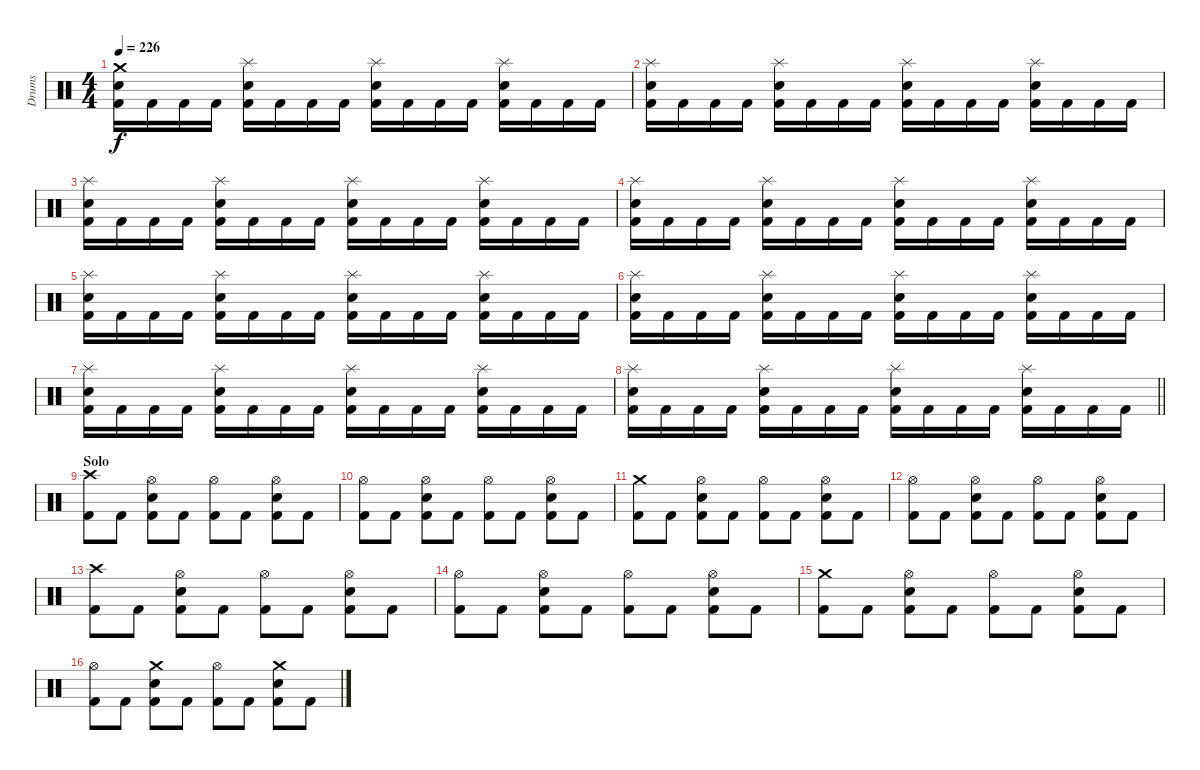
\track ("Drums" "Drums") {instrument percussion}
\staff {score}
\articulation defaults
\ts (4 4)
\tempo 226
\clef neutral
\ks c
("Crash medium (hit)" "Snare (hit) 2" "Kick (hit) 2").16{dy f} "Kick (hit) 2".16 "Kick (hit) 2".16 "Kick (hit) 2".16 ("Splash (hit)" "Snare (hit) 2" "Kick (hit) 2").16 "Kick (hit) 2".16 "Kick (hit) 2".16 "Kick (hit) 2".16 ("Splash (hit)" "Snare (hit) 2" "Kick (hit) 2").16 "Kick (hit) 2".16 "Kick (hit) 2".16 "Kick (hit) 2".16 ("Splash (hit)" "Snare (hit) 2" "Kick (hit) 2").16 "Kick (hit) 2".16 "Kick (hit) 2".16 "Kick (hit) 2".16 |
("Splash (hit)" "Snare (hit) 2" "Kick (hit) 2").16 "Kick (hit) 2".16 "Kick (hit) 2".16 "Kick (hit) 2".16 ("Splash (hit)" "Snare (hit) 2" "Kick (hit) 2").16 "Kick (hit) 2".16 "Kick (hit) 2".16 "Kick (hit) 2".16 ("Splash (hit)" "Snare (hit) 2" "Kick (hit) 2").16 "Kick (hit) 2".16 "Kick (hit) 2".16 "Kick (hit) 2".16 ("Splash (hit)" "Snare (hit) 2" "Kick (hit) 2").16 "Kick (hit) 2".16 "Kick (hit) 2".16 "Kick (hit) 2".16 |
("Splash (hit)" "Snare (hit) 2" "Kick (hit) 2").16 "Kick (hit) 2".16 "Kick (hit) 2".16 "Kick (hit) 2".16 ("Splash (hit)" "Snare (hit) 2" "Kick (hit) 2").16 "Kick (hit) 2".16 "Kick (hit) 2".16 "Kick (hit) 2".16 ("Splash (hit)" "Snare (hit) 2" "Kick (hit) 2").16 "Kick (hit) 2".16 "Kick (hit) 2".16 "Kick (hit) 2".16 ("Splash (hit)" "Snare (hit) 2" "Kick (hit) 2").16 "Kick (hit) 2".16 "Kick (hit) 2".16 "Kick (hit) 2".16 |
("Splash (hit)" "Snare (hit) 2" "Kick (hit) 2").16 "Kick (hit) 2".16 "Kick (hit) 2".16 "Kick (hit) 2".16 ("Splash (hit)" "Snare (hit) 2" "Kick (hit) 2").16 "Kick (hit) 2".16 "Kick (hit) 2".16 "Kick (hit) 2".16 ("Splash (hit)" "Snare (hit) 2" "Kick (hit) 2").16 "Kick (hit) 2".16 "Kick (hit) 2".16 "Kick (hit) 2".16 ("Splash (hit)" "Snare (hit) 2" "Kick (hit) 2").16 "Kick (hit) 2".16 "Kick (hit) 2".16 "Kick (hit) 2".16 |
("Splash (hit)" "Snare (hit) 2" "Kick (hit) 2").16 "Kick (hit) 2".16 "Kick (hit) 2".16 "Kick (hit) 2".16 ("Splash (hit)" "Snare (hit) 2" "Kick (hit) 2").16 "Kick (hit) 2".16 "Kick (hit) 2".16 "Kick (hit) 2".16 ("Splash (hit)" "Snare (hit) 2" "Kick (hit) 2").16 "Kick (hit) 2".16 "Kick (hit) 2".16 "Kick (hit) 2".16 ("Splash (hit)" "Snare (hit) 2" "Kick (hit) 2").16 "Kick (hit) 2".16 "Kick (hit) 2".16 "Kick (hit) 2".16 |
("Splash (hit)" "Snare (hit) 2" "Kick (hit) 2").16 "Kick (hit) 2".16 "Kick (hit) 2".16 "Kick (hit) 2".16 ("Splash (hit)" "Snare (hit) 2" "Kick (hit) 2").16 "Kick (hit) 2".16 "Kick (hit) 2".16 "Kick (hit) 2".16 ("Splash (hit)" "Snare (hit) 2" "Kick (hit) 2").16 "Kick (hit) 2".16 "Kick (hit) 2".16 "Kick (hit) 2".16 ("Splash (hit)" "Snare (hit) 2" "Kick (hit) 2").16 "Kick (hit) 2".16 "Kick (hit) 2".16 "Kick (hit) 2".16 |
("Splash (hit)" "Snare (hit) 2" "Kick (hit) 2").16 "Kick (hit) 2".16 "Kick (hit) 2".16 "Kick (hit) 2".16 ("Splash (hit)" "Snare (hit) 2" "Kick (hit) 2").16 "Kick (hit) 2".16 "Kick (hit) 2".16 "Kick (hit) 2".16 ("Splash (hit)" "Snare (hit) 2" "Kick (hit) 2").16 "Kick (hit) 2".16 "Kick (hit) 2".16 "Kick (hit) 2".16 ("Splash (hit)" "Snare (hit) 2" "Kick (hit) 2").16 "Kick (hit) 2".16 "Kick (hit) 2".16 "Kick (hit) 2".16 |
\barLineRight lightlight
("Splash (hit)" "Snare (hit) 2" "Kick (hit) 2").16 "Kick (hit) 2".16 "Kick (hit) 2".16 "Kick (hit) 2".16 ("Splash (hit)" "Snare (hit) 2" "Kick (hit) 2").16 "Kick (hit) 2".16 "Kick (hit) 2".16 "Kick (hit) 2".16 ("Splash (hit)" "Snare (hit) 2" "Kick (hit) 2").16 "Kick (hit) 2".16 "Kick (hit) 2".16 "Kick (hit) 2".16 ("Splash (hit)" "Snare (hit) 2" "Kick (hit) 2").16 "Kick (hit) 2".16 "Kick (hit) 2".16 "Kick (hit) 2".16 |
\section ("" "Solo")
("Crash high (hit)" "Kick (hit) 2").8 "Kick (hit) 2".8 ("Hi-Hat (open)" "Snare (hit) 2" "Kick (hit) 2").8 "Kick (hit) 2".8 ("Hi-Hat (open)" "Kick (hit) 2").8 "Kick (hit) 2".8 ("Hi-Hat (open)" "Snare (hit) 2" "Kick (hit) 2").8 "Kick (hit) 2".8 |
("Hi-Hat (open)" "Kick (hit) 2").8 "Kick (hit) 2".8 ("Hi-Hat (open)" "Snare (hit) 2" "Kick (hit) 2").8 "Kick (hit) 2".8 ("Hi-Hat (open)" "Kick (hit) 2").8 "Kick (hit) 2".8 ("Hi-Hat (open)" "Snare (hit) 2" "Kick (hit) 2").8 "Kick (hit) 2".8 |
("Crash medium (hit)" "Kick (hit) 2").8 "Kick (hit) 2".8 ("Hi-Hat (open)" "Snare (hit) 2" "Kick (hit) 2").8 "Kick (hit) 2".8 ("Hi-Hat (open)" "Kick (hit) 2").8 "Kick (hit) 2".8 ("Hi-Hat (open)" "Snare (hit) 2" "Kick (hit) 2").8 "Kick (hit) 2".8 |
("Hi-Hat (open)" "Kick (hit) 2").8 "Kick (hit) 2".8 ("Hi-Hat (open)" "Snare (hit) 2" "Kick (hit) 2").8 "Kick (hit) 2".8 ("Hi-Hat (open)" "Kick (hit) 2").8 "Kick (hit) 2".8 ("Hi-Hat (open)" "Snare (hit) 2" "Kick (hit) 2").8 "Kick (hit) 2".8 |
("Crash high (hit)" "Kick (hit) 2").8 "Kick (hit) 2".8 ("Hi-Hat (open)" "Snare (hit) 2" "Kick (hit) 2").8 "Kick (hit) 2".8 ("Hi-Hat (open)" "Kick (hit) 2").8 "Kick (hit) 2".8 ("Hi-Hat (open)" "Snare (hit) 2" "Kick (hit) 2").8 "Kick (hit) 2".8 |
("Hi-Hat (open)" "Kick (hit) 2").8 "Kick (hit) 2".8 ("Hi-Hat (open)" "Snare (hit) 2" "Kick (hit) 2").8 "Kick (hit) 2".8 ("Hi-Hat (open)" "Kick (hit) 2").8 "Kick (hit) 2".8 ("Hi-Hat (open)" "Snare (hit) 2" "Kick (hit) 2").8 "Kick (hit) 2".8 |
("Crash medium (hit)" "Kick (hit) 2").8 "Kick (hit) 2".8 ("Hi-Hat (open)" "Snare (hit) 2" "Kick (hit) 2").8 "Kick (hit) 2".8 ("Hi-Hat (open)" "Kick (hit) 2").8 "Kick (hit) 2".8 ("Hi-Hat (open)" "Snare (hit) 2" "Kick (hit) 2").8 "Kick (hit) 2".8 |
("Hi-Hat (open)" "Kick (hit) 2").8 "Kick (hit) 2".8 ("Crash medium (hit)" "Snare (hit) 2" "Kick (hit) 2").8 "Kick (hit) 2".8 ("Hi-Hat (open)" "Kick (hit) 2").8 "Kick (hit) 2".8 ("Crash medium (hit)" "Snare (hit) 2" "Kick (hit) 2").8 "Kick (hit) 2".8
